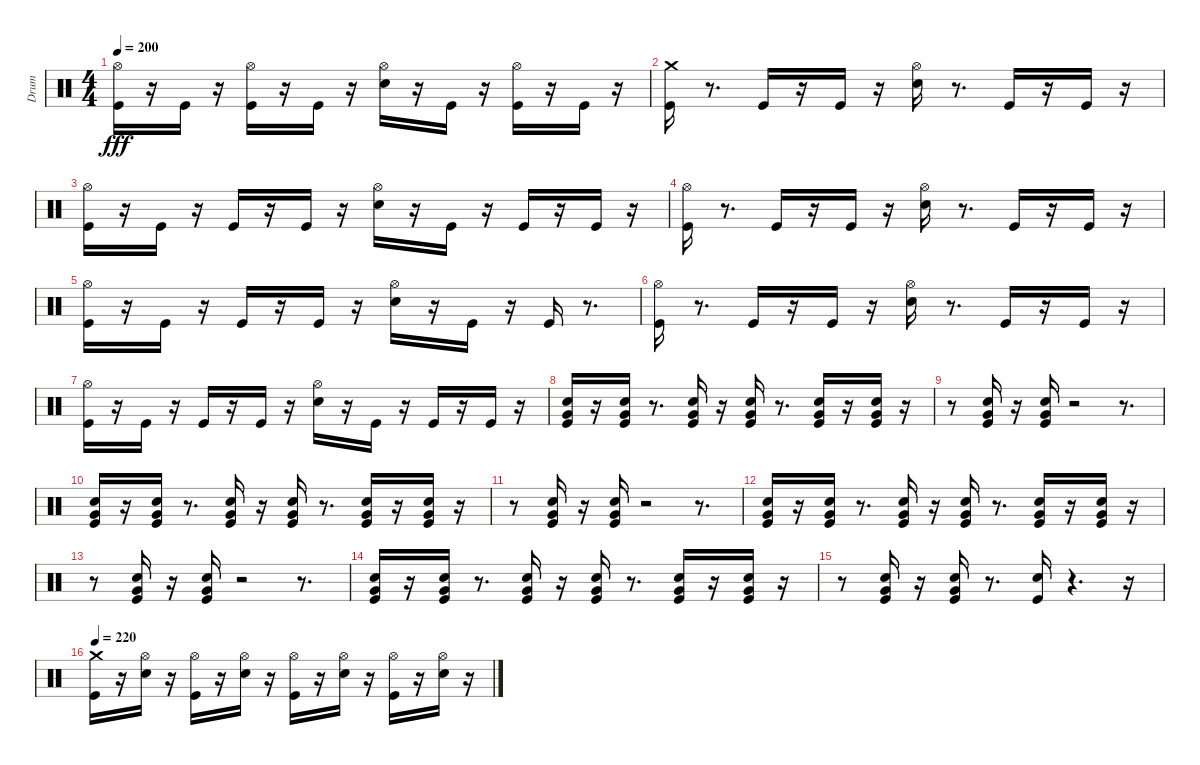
\track ("Drum" "Drum") {instrument percussion}
\staff {score}
\articulation defaults
\ts (4 4)
\tempo 200
\clef neutral
\ks c
("Kick (hit)" "Hi-Hat (open)").16{dy fff} r.16 "Kick (hit)".16 r.16 ("Hi-Hat (open)" "Kick (hit)").16 r.16 "Kick (hit)".16 r.16 ("Hi-Hat (open)" "Snare (hit) 2").16 r.16 "Kick (hit)".16 r.16 ("Hi-Hat (open)" "Kick (hit)").16 r.16 "Kick (hit)".16 r.16 |
("Kick (hit)" "Crash medium (hit)").16 r.8{d} "Kick (hit)".16 r.16 "Kick (hit)".16 r.16 ("Hi-Hat (open)" "Snare (hit) 2").16 r.8{d} "Kick (hit)".16 r.16 "Kick (hit)".16 r.16 |
("Hi-Hat (open)" "Kick (hit)").16 r.16 "Kick (hit)".16 r.16 "Kick (hit)".16 r.16 "Kick (hit)".16 r.16 ("Snare (hit) 2" "Hi-Hat (open)").16 r.16 "Kick (hit)".16 r.16 "Kick (hit)".16 r.16 "Kick (hit)".16 r.16 |
("Kick (hit)" "Hi-Hat (open)").16 r.8{d} "Kick (hit)".16 r.16 "Kick (hit)".16 r.16 ("Hi-Hat (open)" "Snare (hit) 2").16 r.8{d} "Kick (hit)".16 r.16 "Kick (hit)".16 r.16 |
("Hi-Hat (open)" "Kick (hit)").16 r.16 "Kick (hit)".16 r.16 "Kick (hit)".16 r.16 "Kick (hit)".16 r.16 ("Hi-Hat (open)" "Snare (hit) 2").16 r.16 "Kick (hit)".16 r.16 "Kick (hit)".16 r.8{d} |
("Kick (hit)" "Hi-Hat (open)").16 r.8{d} "Kick (hit)".16 r.16 "Kick (hit)".16 r.16 ("Snare (hit) 2" "Hi-Hat (open)").16 r.8{d} "Kick (hit)".16 r.16 "Kick (hit)".16 r.16 |
("Kick (hit)" "Hi-Hat (open)").16 r.16 "Kick (hit)".16 r.16 "Kick (hit)".16 r.16 "Kick (hit)".16 r.16 ("Snare (hit) 2" "Hi-Hat (open)").16 r.16 "Kick (hit)".16 r.16 "Kick (hit)".16 r.16 "Kick (hit)".16 r.16 |
("Very Low Tom (hit)" "Snare (hit) 2" "Kick (hit)").16 r.16 ("Very Low Tom (hit)" "Kick (hit)" "Snare (hit) 2").16 r.8{d} ("Snare (hit) 2" "Kick (hit)" "Very Low Tom (hit)").16 r.16 ("Kick (hit)" "Very Low Tom (hit)" "Snare (hit) 2").16 r.8{d} ("Very Low Tom (hit)" "Kick (hit)" "Snare (hit) 2").16 r.16 ("Very Low Tom (hit)" "Snare (hit) 2" "Kick (hit)").16 r.16 |
r.8 ("Kick (hit)" "Very Low Tom (hit)" "Snare (hit) 2").16 r.16 ("Kick (hit)" "Very Low Tom (hit)" "Snare (hit) 2").16 r.2 r.8{d} |
("Very Low Tom (hit)" "Snare (hit) 2" "Kick (hit)").16 r.16 ("Very Low Tom (hit)" "Kick (hit)" "Snare (hit) 2").16 r.8{d} ("Snare (hit) 2" "Kick (hit)" "Very Low Tom (hit)").16 r.16 ("Kick (hit)" "Very Low Tom (hit)" "Snare (hit) 2").16 r.8{d} ("Very Low Tom (hit)" "Kick (hit)" "Snare (hit) 2").16 r.16 ("Very Low Tom (hit)" "Snare (hit) 2" "Kick (hit)").16 r.16 |
r.8 ("Kick (hit)" "Very Low Tom (hit)" "Snare (hit) 2").16 r.16 ("Kick (hit)" "Very Low Tom (hit)" "Snare (hit) 2").16 r.2 r.8{d} |
("Kick (hit)" "Very Low Tom (hit)" "Snare (hit) 2").16 r.16 ("Snare (hit) 2" "Very Low Tom (hit)" "Kick (hit)").16 r.8{d} ("Very Low Tom (hit)" "Snare (hit) 2" "Kick (hit)").16 r.16 ("Snare (hit) 2" "Kick (hit)" "Very Low Tom (hit)").16 r.8{d} ("Snare (hit) 2" "Very Low Tom (hit)" "Kick (hit)").16 r.16 ("Kick (hit)" "Very Low Tom (hit)" "Snare (hit) 2").16 r.16 |
r.8 ("Snare (hit) 2" "Kick (hit)" "Very Low Tom (hit)").16 r.16 ("Snare (hit) 2" "Kick (hit)" "Very Low Tom (hit)").16 r.2 r.8{d} |
("Kick (hit)" "Very Low Tom (hit)" "Snare (hit) 2").16 r.16 ("Snare (hit) 2" "Very Low Tom (hit)" "Kick (hit)").16 r.8{d} ("Very Low Tom (hit)" "Snare (hit) 2" "Kick (hit)").16 r.16 ("Snare (hit) 2" "Kick (hit)" "Very Low Tom (hit)").16 r.8{d} ("Snare (hit) 2" "Very Low Tom (hit)" "Kick (hit)").16 r.16 ("Kick (hit)" "Very Low Tom (hit)" "Snare (hit) 2").16 r.16 |
r.8 ("Snare (hit) 2" "Kick (hit)" "Very Low Tom (hit)").16 r.16 ("Snare (hit) 2" "Kick (hit)" "Very Low Tom (hit)").16 r.8{d} ("Snare (hit) 2" "Kick (hit)").16 r.4{d} r.16 |
\tempo 220
("Crash medium (hit)" "Kick (hit)").16 r.16 ("Hi-Hat (open)" "Snare (hit) 2").16 r.16 ("Kick (hit)" "Hi-Hat (open)").16 r.16 ("Snare (hit) 2" "Hi-Hat (open)").16 r.16 ("Hi-Hat (open)" "Kick (hit)").16 r.16 ("Snare (hit) 2" "Hi-Hat (open)").16 r.16 ("Hi-Hat (open)" "Kick (hit)").16 r.16 ("Hi-Hat (open)" "Snare (hit) 2").16 r.16
